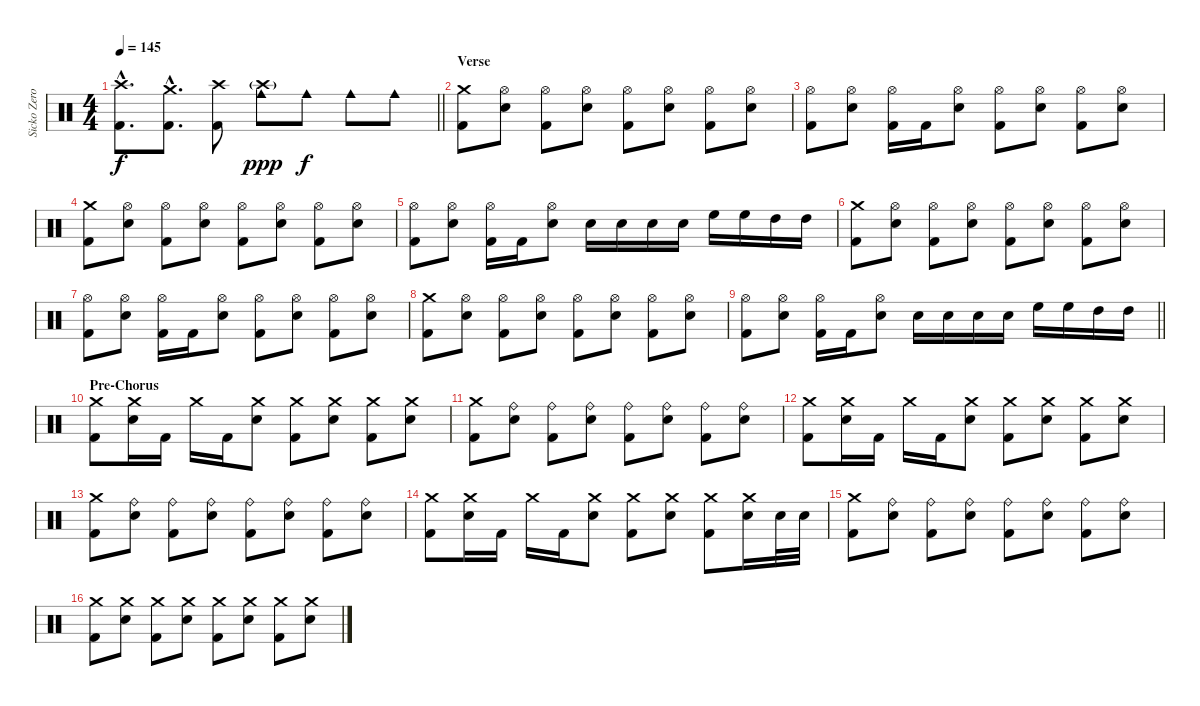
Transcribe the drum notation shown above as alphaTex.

\track ("Sicko Zero - Drums" "Sicko Zero") {instrument percussion}
\staff {score}
\articulation defaults
\ts (4 4)
\tempo 145
\clef neutral
\barLineRight lightlight
\ks c
("Crash high (hit)"{hac} "Kick (hit) 2"{hac}).8{d dy f} ("Crash medium (hit)"{hac} "Kick (hit) 2"{hac}).8{d} ("Crash high (hit)" "Kick (hit) 2").8 ("Crash high (hit)"{g} "Cowbell medium (hit)").8{dy ppp} "Cowbell medium (hit)".8{dy f} "Cowbell medium (hit)".8 "Cowbell medium (hit)".8 |
\section ("" "Verse")
("Crash medium (hit)" "Kick (hit) 2").8 ("Hi-Hat (open)" "Electric Snare (hit)").8 ("Hi-Hat (open)" "Kick (hit) 2").8 ("Hi-Hat (open)" "Electric Snare (hit)").8 ("Hi-Hat (open)" "Kick (hit) 2").8 ("Hi-Hat (open)" "Electric Snare (hit)").8 ("Hi-Hat (open)" "Kick (hit) 2").8 ("Hi-Hat (open)" "Electric Snare (hit)").8 |
("Hi-Hat (open)" "Kick (hit) 2").8 ("Hi-Hat (open)" "Electric Snare (hit)").8 ("Hi-Hat (open)" "Kick (hit) 2").16 "Kick (hit) 2".16 ("Hi-Hat (open)" "Electric Snare (hit)").8 ("Hi-Hat (open)" "Kick (hit) 2").8 ("Hi-Hat (open)" "Electric Snare (hit)").8 ("Hi-Hat (open)" "Kick (hit) 2").8 ("Hi-Hat (open)" "Electric Snare (hit)").8 |
("Crash medium (hit)" "Kick (hit) 2").8 ("Hi-Hat (open)" "Electric Snare (hit)").8 ("Hi-Hat (open)" "Kick (hit) 2").8 ("Hi-Hat (open)" "Electric Snare (hit)").8 ("Hi-Hat (open)" "Kick (hit) 2").8 ("Hi-Hat (open)" "Electric Snare (hit)").8 ("Hi-Hat (open)" "Kick (hit) 2").8 ("Hi-Hat (open)" "Electric Snare (hit)").8 |
("Hi-Hat (open)" "Kick (hit) 2").8 ("Hi-Hat (open)" "Electric Snare (hit)").8 ("Hi-Hat (open)" "Kick (hit) 2").16 "Kick (hit) 2".16 ("Hi-Hat (open)" "Electric Snare (hit)").8 "Electric Snare (hit)".16 "Electric Snare (hit)".16 "Electric Snare (hit)".16 "Electric Snare (hit)".16 "High Floor Tom (hit)".16 "High Floor Tom (hit)".16 "High Tom (hit)".16 "High Tom (hit)".16 |
("Crash medium (hit)" "Kick (hit) 2").8 ("Hi-Hat (open)" "Electric Snare (hit)").8 ("Hi-Hat (open)" "Kick (hit) 2").8 ("Hi-Hat (open)" "Electric Snare (hit)").8 ("Hi-Hat (open)" "Kick (hit) 2").8 ("Hi-Hat (open)" "Electric Snare (hit)").8 ("Hi-Hat (open)" "Kick (hit) 2").8 ("Hi-Hat (open)" "Electric Snare (hit)").8 |
("Hi-Hat (open)" "Kick (hit) 2").8 ("Hi-Hat (open)" "Electric Snare (hit)").8 ("Hi-Hat (open)" "Kick (hit) 2").16 "Kick (hit) 2".16 ("Hi-Hat (open)" "Electric Snare (hit)").8 ("Hi-Hat (open)" "Kick (hit) 2").8 ("Hi-Hat (open)" "Electric Snare (hit)").8 ("Hi-Hat (open)" "Kick (hit) 2").8 ("Hi-Hat (open)" "Electric Snare (hit)").8 |
("Crash medium (hit)" "Kick (hit) 2").8 ("Hi-Hat (open)" "Electric Snare (hit)").8 ("Hi-Hat (open)" "Kick (hit) 2").8 ("Hi-Hat (open)" "Electric Snare (hit)").8 ("Hi-Hat (open)" "Kick (hit) 2").8 ("Hi-Hat (open)" "Electric Snare (hit)").8 ("Hi-Hat (open)" "Kick (hit) 2").8 ("Hi-Hat (open)" "Electric Snare (hit)").8 |
\barLineRight lightlight
("Hi-Hat (open)" "Kick (hit) 2").8 ("Hi-Hat (open)" "Electric Snare (hit)").8 ("Hi-Hat (open)" "Kick (hit) 2").16 "Kick (hit) 2".16 ("Hi-Hat (open)" "Electric Snare (hit)").8 "Electric Snare (hit)".16 "Electric Snare (hit)".16 "Electric Snare (hit)".16 "Electric Snare (hit)".16 "High Floor Tom (hit)".16 "High Floor Tom (hit)".16 "High Tom (hit)".16 "High Tom (hit)".16 |
\section ("" "Pre-Chorus")
("Crash medium (hit)" "Kick (hit) 2").8 ("Crash medium (hit)" "Electric Snare (hit)").16 "Kick (hit) 2".16 "Crash medium (hit)".16 "Kick (hit) 2".16 ("Crash medium (hit)" "Electric Snare (hit)").8 ("Crash medium (hit)" "Kick (hit) 2").8 ("Crash medium (hit)" "Electric Snare (hit)").8 ("Crash medium (hit)" "Kick (hit) 2").8 ("Crash medium (hit)" "Electric Snare (hit)").8 |
("Crash medium (hit)" "Kick (hit) 2").8 ("Ride (bell)" "Electric Snare (hit)").8 ("Ride (bell)" "Kick (hit) 2").8 ("Ride (bell)" "Electric Snare (hit)").8 ("Ride (bell)" "Kick (hit) 2").8 ("Ride (bell)" "Electric Snare (hit)").8 ("Ride (bell)" "Kick (hit) 2").8 ("Ride (bell)" "Electric Snare (hit)").8 |
("Crash medium (hit)" "Kick (hit) 2").8 ("Crash medium (hit)" "Electric Snare (hit)").16 "Kick (hit) 2".16 "Crash medium (hit)".16 "Kick (hit) 2".16 ("Crash medium (hit)" "Electric Snare (hit)").8 ("Crash medium (hit)" "Kick (hit) 2").8 ("Crash medium (hit)" "Electric Snare (hit)").8 ("Crash medium (hit)" "Kick (hit) 2").8 ("Crash medium (hit)" "Electric Snare (hit)").8 |
("Crash medium (hit)" "Kick (hit) 2").8 ("Ride (bell)" "Electric Snare (hit)").8 ("Ride (bell)" "Kick (hit) 2").8 ("Ride (bell)" "Electric Snare (hit)").8 ("Ride (bell)" "Kick (hit) 2").8 ("Ride (bell)" "Electric Snare (hit)").8 ("Ride (bell)" "Kick (hit) 2").8 ("Ride (bell)" "Electric Snare (hit)").8 |
("Crash medium (hit)" "Kick (hit) 2").8 ("Crash medium (hit)" "Electric Snare (hit)").16 "Kick (hit) 2".16 "Crash medium (hit)".16 "Kick (hit) 2".16 ("Crash medium (hit)" "Electric Snare (hit)").8 ("Crash medium (hit)" "Kick (hit) 2").8 ("Crash medium (hit)" "Electric Snare (hit)").8 ("Crash medium (hit)" "Kick (hit) 2").8 ("Crash medium (hit)" "Electric Snare (hit)").16 "Electric Snare (hit)".32 "Electric Snare (hit)".32 |
("Crash medium (hit)" "Kick (hit) 2").8 ("Ride (bell)" "Electric Snare (hit)").8 ("Ride (bell)" "Kick (hit) 2").8 ("Ride (bell)" "Electric Snare (hit)").8 ("Ride (bell)" "Kick (hit) 2").8 ("Ride (bell)" "Electric Snare (hit)").8 ("Ride (bell)" "Kick (hit) 2").8 ("Ride (bell)" "Electric Snare (hit)").8 |
("Crash medium (hit)" "Kick (hit) 2").8 ("Crash medium (hit)" "Electric Snare (hit)").8 ("Crash medium (hit)" "Kick (hit) 2").8 ("Crash medium (hit)" "Electric Snare (hit)").8 ("Crash medium (hit)" "Kick (hit) 2").8 ("Crash medium (hit)" "Electric Snare (hit)").8 ("Crash medium (hit)" "Kick (hit) 2").8 ("Crash medium (hit)" "Electric Snare (hit)").8
